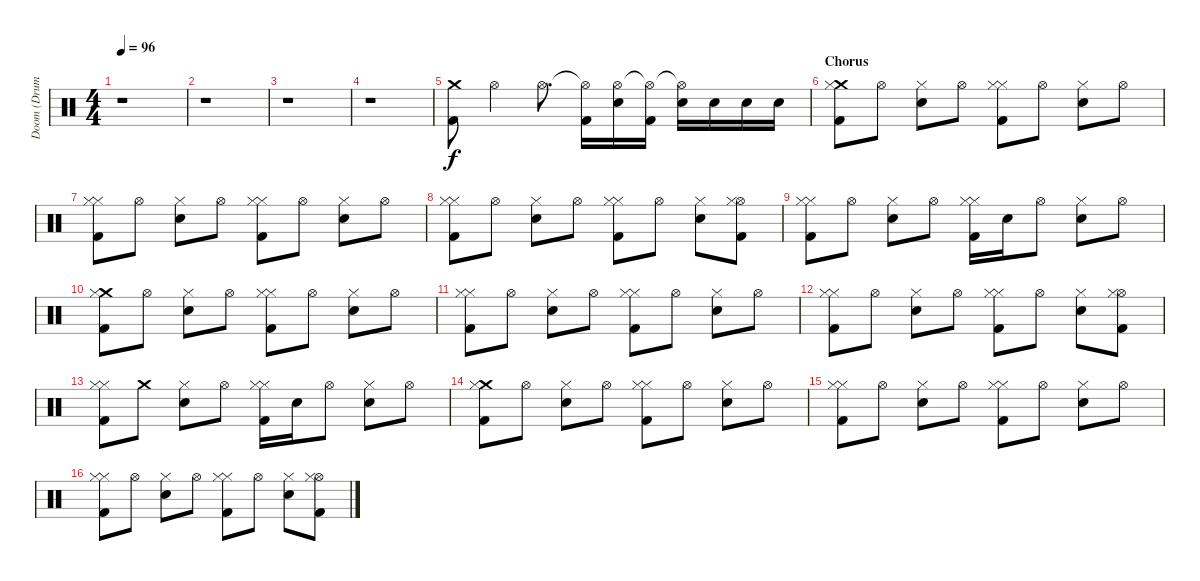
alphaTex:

\track ("Doom (Drums)" "Doom (Drum") {instrument percussion}
\staff {score}
\articulation defaults
\ts (4 4)
\tempo 96
\clef neutral
\ks c
r.1{dy f} |
r.1 |
r.1 |
r.1 |
("Crash medium (hit)" "Kick (hit) 2").8 "Hi-Hat (open)".4 "Hi-Hat (open)".8{d} ("Hi-Hat (open)"{t} "Kick (hit) 2").16 ("Hi-Hat (open)" "Electric Snare (hit)").16 ("Hi-Hat (open)"{t} "Kick (hit) 2").16 ("Hi-Hat (open)"{t} "Electric Snare (hit)").16 "Electric Snare (hit)".16 "Electric Snare (hit)".16 "Electric Snare (hit)".16 |
\section ("" "Chorus")
("Crash medium (hit)" "Hi-Hat (closed)" "Kick (hit) 2").8 "Hi-Hat (open)".8 ("Hi-Hat (closed)" "Electric Snare (hit)").8 "Hi-Hat (open)".8 ("Hi-Hat (closed)" "Hi-Hat (closed)" "Kick (hit) 2").8 "Hi-Hat (open)".8 ("Hi-Hat (closed)" "Electric Snare (hit)").8 "Hi-Hat (open)".8 |
("Hi-Hat (closed)" "Hi-Hat (closed)" "Kick (hit) 2").8 "Hi-Hat (open)".8 ("Hi-Hat (closed)" "Electric Snare (hit)").8 "Hi-Hat (open)".8 ("Hi-Hat (closed)" "Hi-Hat (closed)" "Kick (hit) 2").8 "Hi-Hat (open)".8 ("Hi-Hat (closed)" "Electric Snare (hit)").8 "Hi-Hat (open)".8 |
("Hi-Hat (closed)" "Hi-Hat (closed)" "Kick (hit) 2").8 "Hi-Hat (open)".8 ("Hi-Hat (closed)" "Electric Snare (hit)").8 "Hi-Hat (open)".8 ("Hi-Hat (closed)" "Hi-Hat (closed)" "Kick (hit) 2").8 "Hi-Hat (open)".8 ("Hi-Hat (closed)" "Electric Snare (hit)").8 ("Hi-Hat (open)" "Hi-Hat (closed)" "Kick (hit) 2").8 |
("Hi-Hat (closed)" "Hi-Hat (closed)" "Kick (hit) 2").8 "Hi-Hat (open)".8 ("Hi-Hat (closed)" "Electric Snare (hit)").8 "Hi-Hat (open)".8 ("Hi-Hat (closed)" "Hi-Hat (closed)" "Kick (hit) 2").16 "Electric Snare (hit)".16 "Hi-Hat (open)".8 ("Hi-Hat (closed)" "Electric Snare (hit)").8 "Hi-Hat (open)".8 |
("Crash medium (hit)" "Hi-Hat (closed)" "Kick (hit) 2").8 "Hi-Hat (open)".8 ("Hi-Hat (closed)" "Electric Snare (hit)").8 "Hi-Hat (open)".8 ("Hi-Hat (closed)" "Hi-Hat (closed)" "Kick (hit) 2").8 "Hi-Hat (open)".8 ("Hi-Hat (closed)" "Electric Snare (hit)").8 "Hi-Hat (open)".8 |
("Hi-Hat (closed)" "Hi-Hat (closed)" "Kick (hit) 2").8 "Hi-Hat (open)".8 ("Hi-Hat (closed)" "Electric Snare (hit)").8 "Hi-Hat (open)".8 ("Hi-Hat (closed)" "Hi-Hat (closed)" "Kick (hit) 2").8 "Hi-Hat (open)".8 ("Hi-Hat (closed)" "Electric Snare (hit)").8 "Hi-Hat (open)".8 |
("Hi-Hat (closed)" "Hi-Hat (closed)" "Kick (hit) 2").8 "Hi-Hat (open)".8 ("Hi-Hat (closed)" "Electric Snare (hit)").8 "Hi-Hat (open)".8 ("Hi-Hat (closed)" "Hi-Hat (closed)" "Kick (hit) 2").8 "Hi-Hat (open)".8 ("Hi-Hat (closed)" "Electric Snare (hit)").8 ("Hi-Hat (open)" "Hi-Hat (closed)" "Kick (hit) 2").8 |
("Hi-Hat (closed)" "Hi-Hat (closed)" "Kick (hit) 2").8 "Crash medium (hit)".8 ("Hi-Hat (closed)" "Electric Snare (hit)").8 "Hi-Hat (open)".8 ("Hi-Hat (closed)" "Hi-Hat (closed)" "Kick (hit) 2").16 "Electric Snare (hit)".16 "Hi-Hat (open)".8 ("Hi-Hat (closed)" "Electric Snare (hit)").8 "Hi-Hat (open)".8 |
("Crash medium (hit)" "Hi-Hat (closed)" "Kick (hit) 2").8 "Hi-Hat (open)".8 ("Hi-Hat (closed)" "Electric Snare (hit)").8 "Hi-Hat (open)".8 ("Hi-Hat (closed)" "Hi-Hat (closed)" "Kick (hit) 2").8 "Hi-Hat (open)".8 ("Hi-Hat (closed)" "Electric Snare (hit)").8 "Hi-Hat (open)".8 |
("Hi-Hat (closed)" "Hi-Hat (closed)" "Kick (hit) 2").8 "Hi-Hat (open)".8 ("Hi-Hat (closed)" "Electric Snare (hit)").8 "Hi-Hat (open)".8 ("Hi-Hat (closed)" "Hi-Hat (closed)" "Kick (hit) 2").8 "Hi-Hat (open)".8 ("Hi-Hat (closed)" "Electric Snare (hit)").8 "Hi-Hat (open)".8 |
("Hi-Hat (closed)" "Hi-Hat (closed)" "Kick (hit) 2").8 "Hi-Hat (open)".8 ("Hi-Hat (closed)" "Electric Snare (hit)").8 "Hi-Hat (open)".8 ("Hi-Hat (closed)" "Hi-Hat (closed)" "Kick (hit) 2").8 "Hi-Hat (open)".8 ("Hi-Hat (closed)" "Electric Snare (hit)").8 ("Hi-Hat (open)" "Hi-Hat (closed)" "Kick (hit) 2").8
